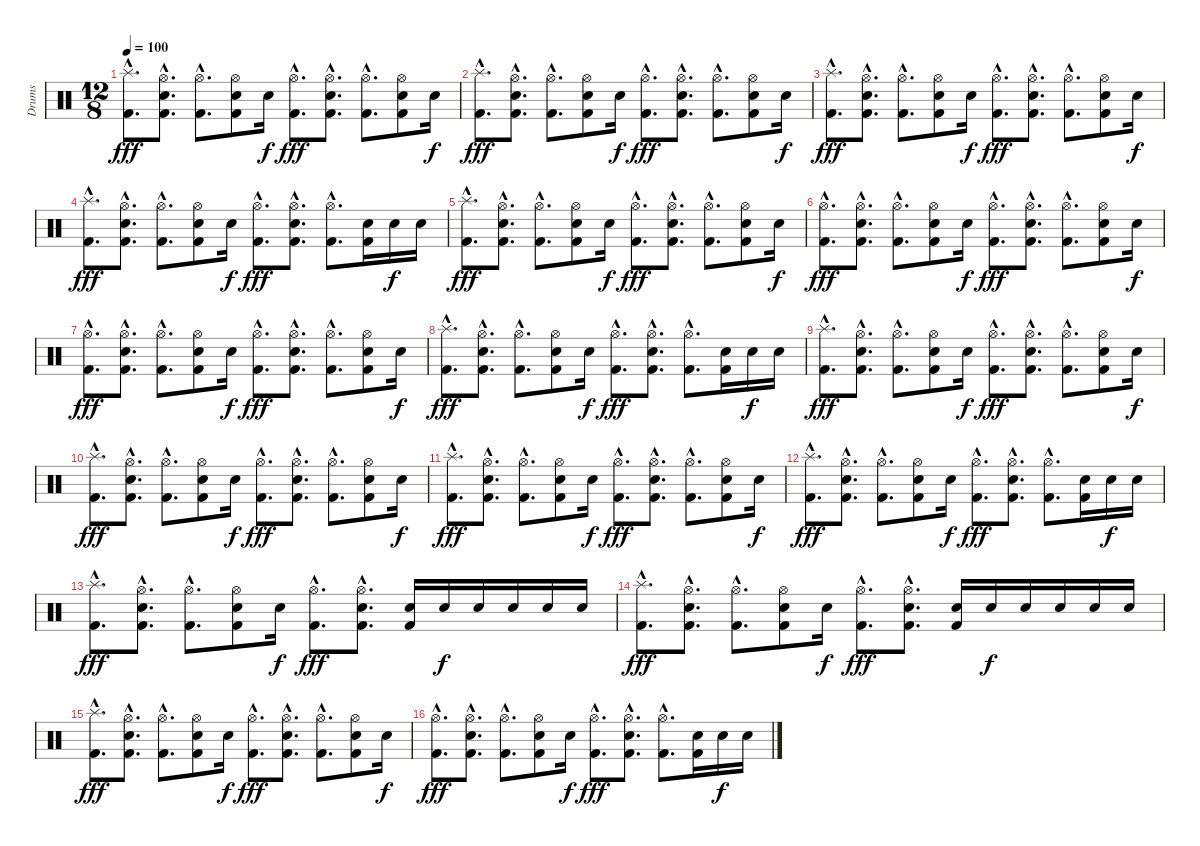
\track ("Drums" "Drums") {instrument percussion}
\staff {score}
\articulation defaults
\ts (12 8)
\tempo 100
\clef neutral
\ks c
("Splash (hit)"{hac} "Kick (hit) 2"{hac}).8{d dy fff} ("Hi-Hat (open)"{hac} "Snare (hit) 2"{hac} "Kick (hit) 2"{hac}).8{d} ("Hi-Hat (open)"{hac} "Kick (hit) 2"{hac}).8{d} ("Hi-Hat (open)" "Snare (hit) 2" "Kick (hit) 2").8 "Snare (hit) 2".16{dy f} ("Hi-Hat (open)"{hac} "Kick (hit) 2"{hac}).8{d dy fff} ("Hi-Hat (open)"{hac} "Snare (hit) 2"{hac} "Kick (hit) 2"{hac}).8{d} ("Hi-Hat (open)"{hac} "Kick (hit) 2"{hac}).8{d} ("Hi-Hat (open)" "Snare (hit) 2" "Kick (hit) 2").8 "Snare (hit) 2".16{dy f} |
("Splash (hit)"{hac} "Kick (hit) 2"{hac}).8{d dy fff} ("Hi-Hat (open)"{hac} "Snare (hit) 2"{hac} "Kick (hit) 2"{hac}).8{d} ("Hi-Hat (open)"{hac} "Kick (hit) 2"{hac}).8{d} ("Hi-Hat (open)" "Snare (hit) 2" "Kick (hit) 2").8 "Snare (hit) 2".16{dy f} ("Hi-Hat (open)"{hac} "Kick (hit) 2"{hac}).8{d dy fff} ("Hi-Hat (open)"{hac} "Snare (hit) 2"{hac} "Kick (hit) 2"{hac}).8{d} ("Hi-Hat (open)"{hac} "Kick (hit) 2"{hac}).8{d} ("Hi-Hat (open)" "Snare (hit) 2" "Kick (hit) 2").8 "Snare (hit) 2".16{dy f} |
("Splash (hit)"{hac} "Kick (hit) 2"{hac}).8{d dy fff} ("Hi-Hat (open)"{hac} "Snare (hit) 2"{hac} "Kick (hit) 2"{hac}).8{d} ("Hi-Hat (open)"{hac} "Kick (hit) 2"{hac}).8{d} ("Hi-Hat (open)" "Snare (hit) 2" "Kick (hit) 2").8 "Snare (hit) 2".16{dy f} ("Hi-Hat (open)"{hac} "Kick (hit) 2"{hac}).8{d dy fff} ("Hi-Hat (open)"{hac} "Snare (hit) 2"{hac} "Kick (hit) 2"{hac}).8{d} ("Hi-Hat (open)"{hac} "Kick (hit) 2"{hac}).8{d} ("Hi-Hat (open)" "Snare (hit) 2" "Kick (hit) 2").8 "Snare (hit) 2".16{dy f} |
("Splash (hit)"{hac} "Kick (hit) 2"{hac}).8{d dy fff} ("Hi-Hat (open)"{hac} "Snare (hit) 2"{hac} "Kick (hit) 2"{hac}).8{d} ("Hi-Hat (open)"{hac} "Kick (hit) 2"{hac}).8{d} ("Hi-Hat (open)" "Snare (hit) 2" "Kick (hit) 2").8 "Snare (hit) 2".16{dy f} ("Hi-Hat (open)"{hac} "Kick (hit) 2"{hac}).8{d dy fff} ("Hi-Hat (open)"{hac} "Snare (hit) 2"{hac} "Kick (hit) 2"{hac}).8{d} ("Hi-Hat (open)"{hac} "Kick (hit) 2"{hac}).8{d} ("Snare (hit) 2" "Kick (hit) 2").16 "Snare (hit) 2".16{dy f} "Snare (hit) 2".16 |
("Splash (hit)"{hac} "Kick (hit) 2"{hac}).8{d dy fff} ("Hi-Hat (open)"{hac} "Snare (hit) 2"{hac} "Kick (hit) 2"{hac}).8{d} ("Hi-Hat (open)"{hac} "Kick (hit) 2"{hac}).8{d} ("Hi-Hat (open)" "Snare (hit) 2" "Kick (hit) 2").8 "Snare (hit) 2".16{dy f} ("Hi-Hat (open)"{hac} "Kick (hit) 2"{hac}).8{d dy fff} ("Hi-Hat (open)"{hac} "Snare (hit) 2"{hac} "Kick (hit) 2"{hac}).8{d} ("Hi-Hat (open)"{hac} "Kick (hit) 2"{hac}).8{d} ("Hi-Hat (open)" "Snare (hit) 2" "Kick (hit) 2").8 "Snare (hit) 2".16{dy f} |
("Hi-Hat (open)"{hac} "Kick (hit) 2"{hac}).8{d dy fff} ("Hi-Hat (open)"{hac} "Snare (hit) 2"{hac} "Kick (hit) 2"{hac}).8{d} ("Hi-Hat (open)"{hac} "Kick (hit) 2"{hac}).8{d} ("Hi-Hat (open)" "Snare (hit) 2" "Kick (hit) 2").8 "Snare (hit) 2".16{dy f} ("Hi-Hat (open)"{hac} "Kick (hit) 2"{hac}).8{d dy fff} ("Hi-Hat (open)"{hac} "Snare (hit) 2"{hac} "Kick (hit) 2"{hac}).8{d} ("Hi-Hat (open)"{hac} "Kick (hit) 2"{hac}).8{d} ("Hi-Hat (open)" "Snare (hit) 2" "Kick (hit) 2").8 "Snare (hit) 2".16{dy f} |
("Hi-Hat (open)"{hac} "Kick (hit) 2"{hac}).8{d dy fff} ("Hi-Hat (open)"{hac} "Snare (hit) 2"{hac} "Kick (hit) 2"{hac}).8{d} ("Hi-Hat (open)"{hac} "Kick (hit) 2"{hac}).8{d} ("Hi-Hat (open)" "Snare (hit) 2" "Kick (hit) 2").8 "Snare (hit) 2".16{dy f} ("Hi-Hat (open)"{hac} "Kick (hit) 2"{hac}).8{d dy fff} ("Hi-Hat (open)"{hac} "Snare (hit) 2"{hac} "Kick (hit) 2"{hac}).8{d} ("Hi-Hat (open)"{hac} "Kick (hit) 2"{hac}).8{d} ("Hi-Hat (open)" "Snare (hit) 2" "Kick (hit) 2").8 "Snare (hit) 2".16{dy f} |
("Splash (hit)"{hac} "Kick (hit) 2"{hac}).8{d dy fff} ("Hi-Hat (open)"{hac} "Snare (hit) 2"{hac} "Kick (hit) 2"{hac}).8{d} ("Hi-Hat (open)"{hac} "Kick (hit) 2"{hac}).8{d} ("Hi-Hat (open)" "Snare (hit) 2" "Kick (hit) 2").8 "Snare (hit) 2".16{dy f} ("Hi-Hat (open)"{hac} "Kick (hit) 2"{hac}).8{d dy fff} ("Hi-Hat (open)"{hac} "Snare (hit) 2"{hac} "Kick (hit) 2"{hac}).8{d} ("Hi-Hat (open)"{hac} "Kick (hit) 2"{hac}).8{d} ("Snare (hit) 2" "Kick (hit) 2").16 "Snare (hit) 2".16{dy f} "Snare (hit) 2".16 |
("Splash (hit)"{hac} "Kick (hit) 2"{hac}).8{d dy fff} ("Hi-Hat (open)"{hac} "Snare (hit) 2"{hac} "Kick (hit) 2"{hac}).8{d} ("Hi-Hat (open)"{hac} "Kick (hit) 2"{hac}).8{d} ("Hi-Hat (open)" "Snare (hit) 2" "Kick (hit) 2").8 "Snare (hit) 2".16{dy f} ("Hi-Hat (open)"{hac} "Kick (hit) 2"{hac}).8{d dy fff} ("Hi-Hat (open)"{hac} "Snare (hit) 2"{hac} "Kick (hit) 2"{hac}).8{d} ("Hi-Hat (open)"{hac} "Kick (hit) 2"{hac}).8{d} ("Hi-Hat (open)" "Snare (hit) 2" "Kick (hit) 2").8 "Snare (hit) 2".16{dy f} |
("Splash (hit)"{hac} "Kick (hit) 2"{hac}).8{d dy fff} ("Hi-Hat (open)"{hac} "Snare (hit) 2"{hac} "Kick (hit) 2"{hac}).8{d} ("Hi-Hat (open)"{hac} "Kick (hit) 2"{hac}).8{d} ("Hi-Hat (open)" "Snare (hit) 2" "Kick (hit) 2").8 "Snare (hit) 2".16{dy f} ("Hi-Hat (open)"{hac} "Kick (hit) 2"{hac}).8{d dy fff} ("Hi-Hat (open)"{hac} "Snare (hit) 2"{hac} "Kick (hit) 2"{hac}).8{d} ("Hi-Hat (open)"{hac} "Kick (hit) 2"{hac}).8{d} ("Hi-Hat (open)" "Snare (hit) 2" "Kick (hit) 2").8 "Snare (hit) 2".16{dy f} |
("Splash (hit)"{hac} "Kick (hit) 2"{hac}).8{d dy fff} ("Hi-Hat (open)"{hac} "Snare (hit) 2"{hac} "Kick (hit) 2"{hac}).8{d} ("Hi-Hat (open)"{hac} "Kick (hit) 2"{hac}).8{d} ("Hi-Hat (open)" "Snare (hit) 2" "Kick (hit) 2").8 "Snare (hit) 2".16{dy f} ("Hi-Hat (open)"{hac} "Kick (hit) 2"{hac}).8{d dy fff} ("Hi-Hat (open)"{hac} "Snare (hit) 2"{hac} "Kick (hit) 2"{hac}).8{d} ("Hi-Hat (open)"{hac} "Kick (hit) 2"{hac}).8{d} ("Hi-Hat (open)" "Snare (hit) 2" "Kick (hit) 2").8 "Snare (hit) 2".16{dy f} |
("Splash (hit)"{hac} "Kick (hit) 2"{hac}).8{d dy fff} ("Hi-Hat (open)"{hac} "Snare (hit) 2"{hac} "Kick (hit) 2"{hac}).8{d} ("Hi-Hat (open)"{hac} "Kick (hit) 2"{hac}).8{d} ("Hi-Hat (open)" "Snare (hit) 2" "Kick (hit) 2").8 "Snare (hit) 2".16{dy f} ("Hi-Hat (open)"{hac} "Kick (hit) 2"{hac}).8{d dy fff} ("Hi-Hat (open)"{hac} "Snare (hit) 2"{hac} "Kick (hit) 2"{hac}).8{d} ("Hi-Hat (open)"{hac} "Kick (hit) 2"{hac}).8{d} ("Snare (hit) 2" "Kick (hit) 2").16 "Snare (hit) 2".16{dy f} "Snare (hit) 2".16 |
("Splash (hit)"{hac} "Kick (hit) 2"{hac}).8{d dy fff} ("Hi-Hat (open)"{hac} "Snare (hit) 2"{hac} "Kick (hit) 2"{hac}).8{d} ("Hi-Hat (open)"{hac} "Kick (hit) 2"{hac}).8{d} ("Hi-Hat (open)" "Snare (hit) 2" "Kick (hit) 2").8 "Snare (hit) 2".16{dy f} ("Hi-Hat (open)"{hac} "Kick (hit) 2"{hac}).8{d dy fff} ("Hi-Hat (open)"{hac} "Snare (hit) 2"{hac} "Kick (hit) 2"{hac}).8{d} ("Snare (hit) 2" "Kick (hit) 2").16 "Snare (hit) 2".16{dy f} "Snare (hit) 2".16 "Snare (hit) 2".16 "Snare (hit) 2".16 "Snare (hit) 2".16 |
("Splash (hit)"{hac} "Kick (hit) 2"{hac}).8{d dy fff} ("Hi-Hat (open)"{hac} "Snare (hit) 2"{hac} "Kick (hit) 2"{hac}).8{d} ("Hi-Hat (open)"{hac} "Kick (hit) 2"{hac}).8{d} ("Hi-Hat (open)" "Snare (hit) 2" "Kick (hit) 2").8 "Snare (hit) 2".16{dy f} ("Hi-Hat (open)"{hac} "Kick (hit) 2"{hac}).8{d dy fff} ("Hi-Hat (open)"{hac} "Snare (hit) 2"{hac} "Kick (hit) 2"{hac}).8{d} ("Snare (hit) 2" "Kick (hit) 2").16 "Snare (hit) 2".16{dy f} "Snare (hit) 2".16 "Snare (hit) 2".16 "Snare (hit) 2".16 "Snare (hit) 2".16 |
("Splash (hit)"{hac} "Kick (hit) 2"{hac}).8{d dy fff} ("Hi-Hat (open)"{hac} "Snare (hit) 2"{hac} "Kick (hit) 2"{hac}).8{d} ("Hi-Hat (open)"{hac} "Kick (hit) 2"{hac}).8{d} ("Hi-Hat (open)" "Snare (hit) 2" "Kick (hit) 2").8 "Snare (hit) 2".16{dy f} ("Hi-Hat (open)"{hac} "Kick (hit) 2"{hac}).8{d dy fff} ("Hi-Hat (open)"{hac} "Snare (hit) 2"{hac} "Kick (hit) 2"{hac}).8{d} ("Hi-Hat (open)"{hac} "Kick (hit) 2"{hac}).8{d} ("Hi-Hat (open)" "Snare (hit) 2" "Kick (hit) 2").8 "Snare (hit) 2".16{dy f} |
("Hi-Hat (open)"{hac} "Kick (hit) 2"{hac}).8{d dy fff} ("Hi-Hat (open)"{hac} "Snare (hit) 2"{hac} "Kick (hit) 2"{hac}).8{d} ("Hi-Hat (open)"{hac} "Kick (hit) 2"{hac}).8{d} ("Hi-Hat (open)" "Snare (hit) 2" "Kick (hit) 2").8 "Snare (hit) 2".16{dy f} ("Hi-Hat (open)"{hac} "Kick (hit) 2"{hac}).8{d dy fff} ("Hi-Hat (open)"{hac} "Snare (hit) 2"{hac} "Kick (hit) 2"{hac}).8{d} ("Hi-Hat (open)"{hac} "Kick (hit) 2"{hac}).8{d} ("Snare (hit) 2" "Kick (hit) 2").16 "Snare (hit) 2".16{dy f} "Snare (hit) 2".16
